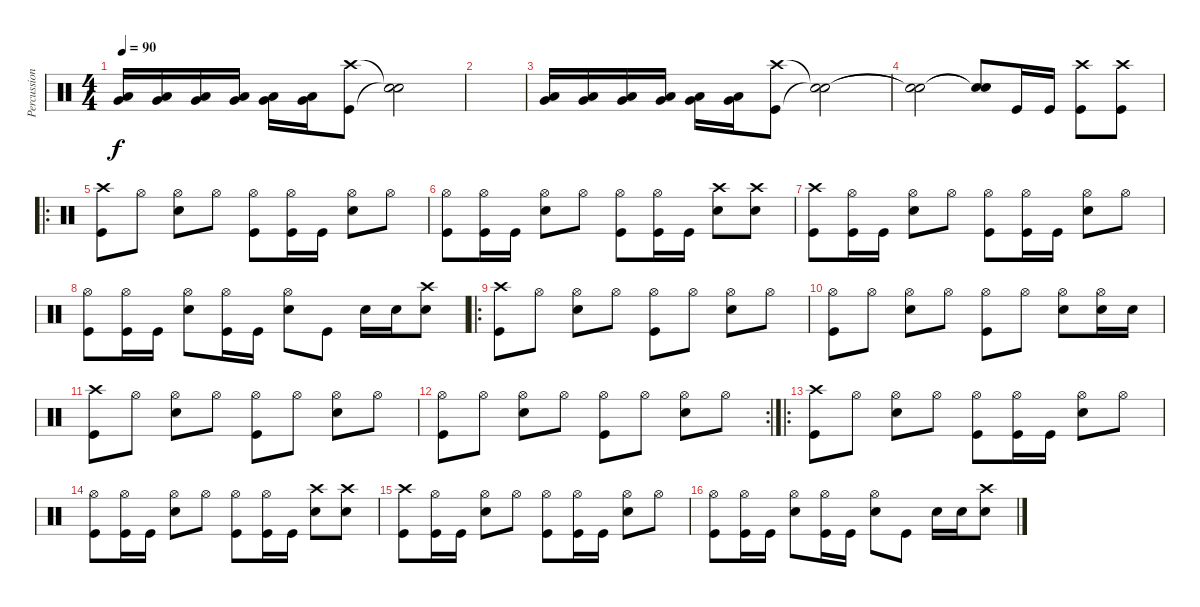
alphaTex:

\track ("Percussion" "Percussion") {instrument percussion}
\staff {score}
\articulation defaults
\ts (4 4)
\tempo 90
\clef neutral
\ks c
("Very Low Tom (hit)" "Low Floor Tom (hit)").16{dy f} ("Very Low Tom (hit)" "Low Floor Tom (hit)").16 ("Very Low Tom (hit)" "Low Floor Tom (hit)").16 ("Very Low Tom (hit)" "Low Floor Tom (hit)").16 ("Very Low Tom (hit)" "Low Floor Tom (hit)").16 ("Very Low Tom (hit)" "Low Floor Tom (hit)").16 ("Crash high (hit)" "Kick (hit)").8 ("Snare (hit)"{t} "Snare (hit)"{t}).2 |
|
("Very Low Tom (hit)" "Low Floor Tom (hit)").16 ("Very Low Tom (hit)" "Low Floor Tom (hit)").16 ("Very Low Tom (hit)" "Low Floor Tom (hit)").16 ("Very Low Tom (hit)" "Low Floor Tom (hit)").16 ("Very Low Tom (hit)" "Low Floor Tom (hit)").16 ("Very Low Tom (hit)" "Low Floor Tom (hit)").16 ("Crash high (hit)" "Kick (hit)").8 ("Snare (hit)"{t} "Snare (hit)"{t}).2 |
("Snare (hit)"{t} "Snare (hit)"{t}).2 ("Snare (hit)"{t} "Snare (hit)"{t}).8 "Kick (hit)".16 "Kick (hit)".16 ("Crash high (hit)" "Kick (hit)").8 ("Crash high (hit)" "Kick (hit)").8 |
\ro
("Crash high (hit)" "Kick (hit)").8 "Hi-Hat (open)".8 ("Hi-Hat (open)" "Snare (hit) 2").8 "Hi-Hat (open)".8 ("Hi-Hat (open)" "Kick (hit)").8 ("Hi-Hat (open)" "Kick (hit)").16 "Kick (hit)".16 ("Hi-Hat (open)" "Snare (hit) 2").8 "Hi-Hat (open)".8 |
("Hi-Hat (open)" "Kick (hit)").8 ("Hi-Hat (open)" "Kick (hit)").16 "Kick (hit)".16 ("Hi-Hat (open)" "Snare (hit) 2").8 "Hi-Hat (open)".8 ("Hi-Hat (open)" "Kick (hit)").8 ("Hi-Hat (open)" "Kick (hit)").16 "Kick (hit)".16 ("Crash high (hit)" "Snare (hit) 2").8 ("Crash high (hit)" "Snare (hit) 2").8 |
("Crash high (hit)" "Kick (hit)").8 ("Hi-Hat (open)" "Kick (hit)").16 "Kick (hit)".16 ("Hi-Hat (open)" "Snare (hit) 2").8 "Hi-Hat (open)".8 ("Hi-Hat (open)" "Kick (hit)").8 ("Hi-Hat (open)" "Kick (hit)").16 "Kick (hit)".16 ("Hi-Hat (open)" "Snare (hit) 2").8 "Hi-Hat (open)".8 |
("Hi-Hat (open)" "Kick (hit)").8 ("Hi-Hat (open)" "Kick (hit)").16 "Kick (hit)".16 ("Hi-Hat (open)" "Snare (hit) 2").8 ("Hi-Hat (open)" "Kick (hit)").16 "Kick (hit)".16 ("Hi-Hat (open)" "Snare (hit) 2").8 "Kick (hit)".8 "Snare (hit) 2".16 "Snare (hit) 2".16 ("Crash high (hit)" "Snare (hit) 2").8 |
\ro
("Crash high (hit)" "Kick (hit)").8 "Hi-Hat (open)".8 ("Hi-Hat (open)" "Snare (hit) 2").8 "Hi-Hat (open)".8 ("Hi-Hat (open)" "Kick (hit)").8 "Hi-Hat (open)".8 ("Hi-Hat (open)" "Snare (hit) 2").8 "Hi-Hat (open)".8 |
("Hi-Hat (open)" "Kick (hit)").8 "Hi-Hat (open)".8 ("Hi-Hat (open)" "Snare (hit) 2").8 "Hi-Hat (open)".8 ("Hi-Hat (open)" "Kick (hit)").8 "Hi-Hat (open)".8 ("Hi-Hat (open)" "Snare (hit) 2").8 ("Hi-Hat (open)" "Snare (hit) 2").16 "Snare (hit) 2".16 |
("Crash high (hit)" "Kick (hit)").8 "Hi-Hat (open)".8 ("Hi-Hat (open)" "Snare (hit) 2").8 "Hi-Hat (open)".8 ("Hi-Hat (open)" "Kick (hit)").8 "Hi-Hat (open)".8 ("Hi-Hat (open)" "Snare (hit) 2").8 "Hi-Hat (open)".8 |
\rc 2
("Hi-Hat (open)" "Kick (hit)").8 "Hi-Hat (open)".8 ("Hi-Hat (open)" "Snare (hit) 2").8 "Hi-Hat (open)".8 ("Hi-Hat (open)" "Kick (hit)").8 "Hi-Hat (open)".8 ("Hi-Hat (open)" "Snare (hit) 2").8 "Hi-Hat (open)".8 |
\ro
("Crash high (hit)" "Kick (hit)").8 "Hi-Hat (open)".8 ("Hi-Hat (open)" "Snare (hit) 2").8 "Hi-Hat (open)".8 ("Hi-Hat (open)" "Kick (hit)").8 ("Hi-Hat (open)" "Kick (hit)").16 "Kick (hit)".16 ("Hi-Hat (open)" "Snare (hit) 2").8 "Hi-Hat (open)".8 |
("Hi-Hat (open)" "Kick (hit)").8 ("Hi-Hat (open)" "Kick (hit)").16 "Kick (hit)".16 ("Hi-Hat (open)" "Snare (hit) 2").8 "Hi-Hat (open)".8 ("Hi-Hat (open)" "Kick (hit)").8 ("Hi-Hat (open)" "Kick (hit)").16 "Kick (hit)".16 ("Crash high (hit)" "Snare (hit) 2").8 ("Crash high (hit)" "Snare (hit) 2").8 |
("Crash high (hit)" "Kick (hit)").8 ("Hi-Hat (open)" "Kick (hit)").16 "Kick (hit)".16 ("Hi-Hat (open)" "Snare (hit) 2").8 "Hi-Hat (open)".8 ("Hi-Hat (open)" "Kick (hit)").8 ("Hi-Hat (open)" "Kick (hit)").16 "Kick (hit)".16 ("Hi-Hat (open)" "Snare (hit) 2").8 "Hi-Hat (open)".8 |
("Hi-Hat (open)" "Kick (hit)").8 ("Hi-Hat (open)" "Kick (hit)").16 "Kick (hit)".16 ("Hi-Hat (open)" "Snare (hit) 2").8 ("Hi-Hat (open)" "Kick (hit)").16 "Kick (hit)".16 ("Hi-Hat (open)" "Snare (hit) 2").8 "Kick (hit)".8 "Snare (hit) 2".16 "Snare (hit) 2".16 ("Crash high (hit)" "Snare (hit) 2").8
